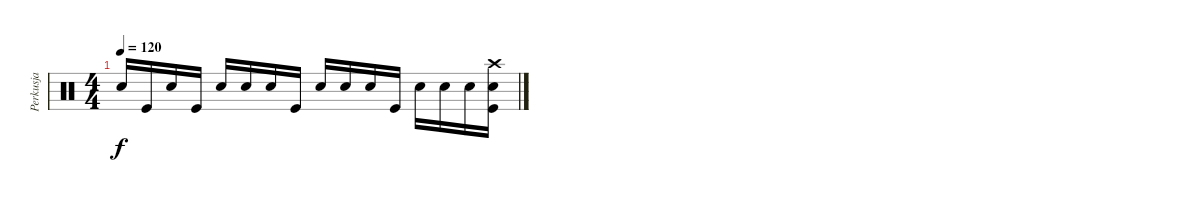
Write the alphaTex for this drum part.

\track ("Perkusja" "Perkusja") {instrument percussion}
\staff {score}
\articulation defaults
\ts (4 4)
\tempo 120
\clef neutral
\ks c "Electric Snare (hit)".16{dy f} "Kick (hit)".16 "Electric Snare (hit)".16 "Kick (hit)".16 "Electric Snare (hit)".16 "Electric Snare (hit)".16 "Electric Snare (hit)".16 "Kick (hit)".16 "Electric Snare (hit)".16 "Electric Snare (hit)".16 "Electric Snare (hit)".16 "Kick (hit)".16 "Electric Snare (hit)".16 "Electric Snare (hit)".16 "Electric Snare (hit)".16
("Electric Snare (hit)" "Crash high (hit)" "Kick (hit)").16
